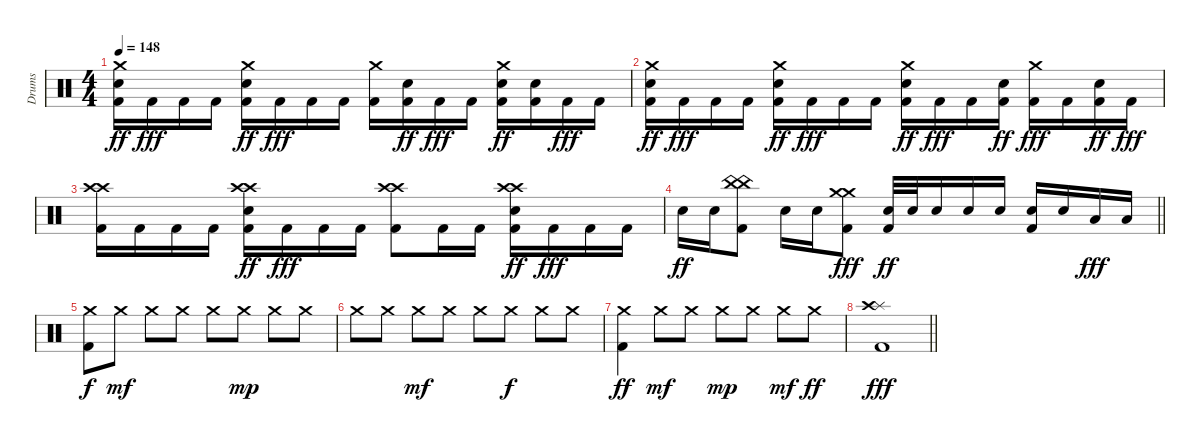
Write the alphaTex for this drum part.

\track ("Drums" "Drums") {instrument percussion}
\staff {score}
\articulation defaults
\ts (4 4)
\tempo 148
\clef neutral
\ks c
("Kick (hit) 2" "Snare (hit) 2" "Crash medium (hit)").16{dy ff} "Kick (hit) 2".16{dy fff} "Kick (hit) 2".16 "Kick (hit) 2".16 ("Kick (hit) 2" "Snare (hit) 2" "Crash medium (hit)").16{dy ff} "Kick (hit) 2".16{dy fff} "Kick (hit) 2".16 "Kick (hit) 2".16 ("Kick (hit) 2" "Crash medium (hit)").16 ("Kick (hit) 2" "Snare (hit) 2").16{dy ff} "Kick (hit) 2".16{dy fff} "Kick (hit) 2".16 ("Kick (hit) 2" "Snare (hit) 2" "Crash medium (hit)").16{dy ff} ("Kick (hit) 2" "Snare (hit) 2").16 "Kick (hit) 2".16{dy fff} "Kick (hit) 2".16 |
("Kick (hit) 2" "Snare (hit) 2" "Crash medium (hit)").16{dy ff} "Kick (hit) 2".16{dy fff} "Kick (hit) 2".16 "Kick (hit) 2".16 ("Kick (hit) 2" "Snare (hit) 2" "Crash medium (hit)").16{dy ff} "Kick (hit) 2".16{dy fff} "Kick (hit) 2".16 "Kick (hit) 2".16 ("Kick (hit) 2" "Snare (hit) 2" "Crash medium (hit)").16{dy ff} "Kick (hit) 2".16{dy fff} "Kick (hit) 2".16 ("Kick (hit) 2" "Snare (hit) 2").16{dy ff} ("Kick (hit) 2" "Crash medium (hit)").16{dy fff} "Kick (hit) 2".16 ("Kick (hit) 2" "Snare (hit) 2").16{dy ff} "Kick (hit) 2".16{dy fff} |
("Kick (hit) 2" "Crash high (hit)" "Crash high (hit)").16 "Kick (hit) 2".16 "Kick (hit) 2".16 "Kick (hit) 2".16 ("Kick (hit) 2" "Snare (hit) 2" "Crash high (hit)" "Crash high (hit)").16{dy ff} "Kick (hit) 2".16{dy fff} "Kick (hit) 2".16 "Kick (hit) 2".16 ("Kick (hit) 2" "Crash high (hit)" "Crash high (hit)").8 "Kick (hit) 2".16 "Kick (hit) 2".16 ("Kick (hit) 2" "Snare (hit) 2" "Crash high (hit)" "Crash high (hit)").16{dy ff} "Kick (hit) 2".16{dy fff} "Kick (hit) 2".16 "Kick (hit) 2".16 |
\barLineRight lightlight "Snare (hit) 2".16{dy ff} "Snare (hit) 2".16
("Kick (hit) 2" "China (hit)" "China (hit)").8 "Snare (hit) 2".16 "Snare (hit) 2".16 ("Kick (hit) 2" "Crash medium (hit)" "Crash medium (hit)").8{dy fff} ("Kick (hit) 2" "Snare (hit) 2").32{dy ff} "Snare (hit) 2".32 "Snare (hit) 2".16 "Snare (hit) 2".16 "Snare (hit) 2".16 ("Kick (hit) 2" "Snare (hit) 2").16 "Snare (hit) 2".16 "Low Tom (hit)".16{dy fff} "Low Floor Tom (hit)".16 |
("Kick (hit) 2" "Crash medium (hit)").8{dy f} "Crash medium (hit)".8{dy mf} "Crash medium (hit)".8 "Crash medium (hit)".8 "Crash medium (hit)".8 "Crash medium (hit)".8{dy mp} "Crash medium (hit)".8 "Crash medium (hit)".8 |
"Crash medium (hit)".8 "Crash medium (hit)".8 "Crash medium (hit)".8{dy mf} "Crash medium (hit)".8 "Crash medium (hit)".8 "Crash medium (hit)".8{dy f} "Crash medium (hit)".8 "Crash medium (hit)".8 |
("Kick (hit) 2" "Crash medium (hit)").4{dy ff} "Crash medium (hit)".8{dy mf} "Crash medium (hit)".8 "Crash medium (hit)".8{dy mp} "Crash medium (hit)".8 "Crash medium (hit)".8{dy mf} "Crash medium (hit)".8{dy ff} |
\barLineRight lightlight
("Kick (hit) 2" "Splash (hit)" "Crash high (hit)").1{dy fff}
